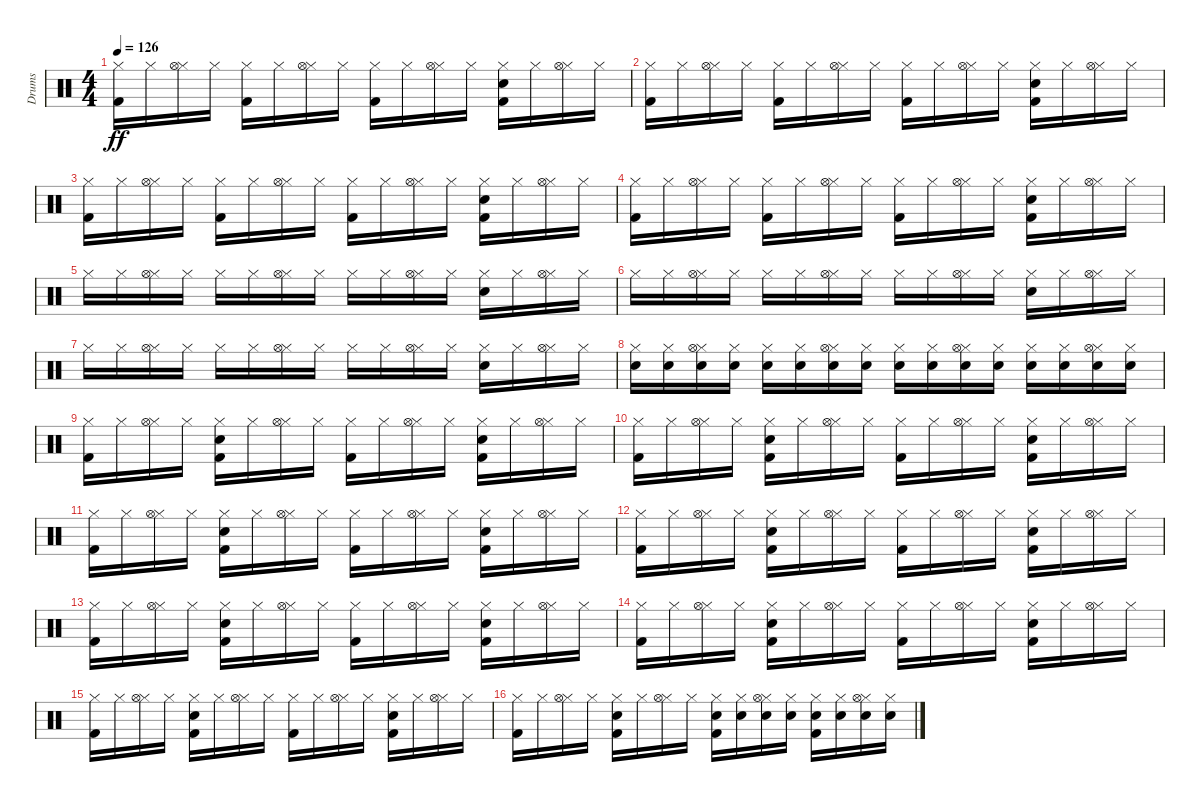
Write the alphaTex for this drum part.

\track ("Drums" "Drums") {instrument percussion}
\staff {score}
\articulation defaults
\ts (4 4)
\tempo 126
\clef neutral
\ks c
("Kick (hit) 2" "Hi-Hat (closed)").16{dy ff} "Hi-Hat (closed)".16 ("Hi-Hat (closed)" "Hi-Hat (open)").16 "Hi-Hat (closed)".16 ("Kick (hit) 2" "Hi-Hat (closed)").16 "Hi-Hat (closed)".16 ("Hi-Hat (closed)" "Hi-Hat (open)").16 "Hi-Hat (closed)".16 ("Kick (hit) 2" "Hi-Hat (closed)").16 "Hi-Hat (closed)".16 ("Hi-Hat (closed)" "Hi-Hat (open)").16 "Hi-Hat (closed)".16 ("Kick (hit) 2" "Electric Snare (hit)" "Hi-Hat (closed)").16 "Hi-Hat (closed)".16 ("Hi-Hat (closed)" "Hi-Hat (open)").16 "Hi-Hat (closed)".16 |
("Kick (hit) 2" "Hi-Hat (closed)").16 "Hi-Hat (closed)".16 ("Hi-Hat (closed)" "Hi-Hat (open)").16 "Hi-Hat (closed)".16 ("Kick (hit) 2" "Hi-Hat (closed)").16 "Hi-Hat (closed)".16 ("Hi-Hat (closed)" "Hi-Hat (open)").16 "Hi-Hat (closed)".16 ("Kick (hit) 2" "Hi-Hat (closed)").16 "Hi-Hat (closed)".16 ("Hi-Hat (closed)" "Hi-Hat (open)").16 "Hi-Hat (closed)".16 ("Kick (hit) 2" "Electric Snare (hit)" "Hi-Hat (closed)").16 "Hi-Hat (closed)".16 ("Hi-Hat (closed)" "Hi-Hat (open)").16 "Hi-Hat (closed)".16 |
("Kick (hit) 2" "Hi-Hat (closed)").16 "Hi-Hat (closed)".16 ("Hi-Hat (closed)" "Hi-Hat (open)").16 "Hi-Hat (closed)".16 ("Kick (hit) 2" "Hi-Hat (closed)").16 "Hi-Hat (closed)".16 ("Hi-Hat (closed)" "Hi-Hat (open)").16 "Hi-Hat (closed)".16 ("Kick (hit) 2" "Hi-Hat (closed)").16 "Hi-Hat (closed)".16 ("Hi-Hat (closed)" "Hi-Hat (open)").16 "Hi-Hat (closed)".16 ("Kick (hit) 2" "Electric Snare (hit)" "Hi-Hat (closed)").16 "Hi-Hat (closed)".16 ("Hi-Hat (closed)" "Hi-Hat (open)").16 "Hi-Hat (closed)".16 |
("Kick (hit) 2" "Hi-Hat (closed)").16 "Hi-Hat (closed)".16 ("Hi-Hat (closed)" "Hi-Hat (open)").16 "Hi-Hat (closed)".16 ("Kick (hit) 2" "Hi-Hat (closed)").16 "Hi-Hat (closed)".16 ("Hi-Hat (closed)" "Hi-Hat (open)").16 "Hi-Hat (closed)".16 ("Kick (hit) 2" "Hi-Hat (closed)").16 "Hi-Hat (closed)".16 ("Hi-Hat (closed)" "Hi-Hat (open)").16 "Hi-Hat (closed)".16 ("Kick (hit) 2" "Electric Snare (hit)" "Hi-Hat (closed)").16 "Hi-Hat (closed)".16 ("Hi-Hat (closed)" "Hi-Hat (open)").16 "Hi-Hat (closed)".16 |
"Hi-Hat (closed)".16 "Hi-Hat (closed)".16 ("Hi-Hat (closed)" "Hi-Hat (open)").16 "Hi-Hat (closed)".16 "Hi-Hat (closed)".16 "Hi-Hat (closed)".16 ("Hi-Hat (closed)" "Hi-Hat (open)").16 "Hi-Hat (closed)".16 "Hi-Hat (closed)".16 "Hi-Hat (closed)".16 ("Hi-Hat (closed)" "Hi-Hat (open)").16 "Hi-Hat (closed)".16 ("Electric Snare (hit)" "Hi-Hat (closed)").16 "Hi-Hat (closed)".16 ("Hi-Hat (closed)" "Hi-Hat (open)").16 "Hi-Hat (closed)".16 |
"Hi-Hat (closed)".16 "Hi-Hat (closed)".16 ("Hi-Hat (closed)" "Hi-Hat (open)").16 "Hi-Hat (closed)".16 "Hi-Hat (closed)".16 "Hi-Hat (closed)".16 ("Hi-Hat (closed)" "Hi-Hat (open)").16 "Hi-Hat (closed)".16 "Hi-Hat (closed)".16 "Hi-Hat (closed)".16 ("Hi-Hat (closed)" "Hi-Hat (open)").16 "Hi-Hat (closed)".16 ("Electric Snare (hit)" "Hi-Hat (closed)").16 "Hi-Hat (closed)".16 ("Hi-Hat (closed)" "Hi-Hat (open)").16 "Hi-Hat (closed)".16 |
"Hi-Hat (closed)".16 "Hi-Hat (closed)".16 ("Hi-Hat (closed)" "Hi-Hat (open)").16 "Hi-Hat (closed)".16 "Hi-Hat (closed)".16 "Hi-Hat (closed)".16 ("Hi-Hat (closed)" "Hi-Hat (open)").16 "Hi-Hat (closed)".16 "Hi-Hat (closed)".16 "Hi-Hat (closed)".16 ("Hi-Hat (closed)" "Hi-Hat (open)").16 "Hi-Hat (closed)".16 ("Electric Snare (hit)" "Hi-Hat (closed)").16 "Hi-Hat (closed)".16 ("Hi-Hat (closed)" "Hi-Hat (open)").16 "Hi-Hat (closed)".16 |
("Electric Snare (hit)" "Hi-Hat (closed)").16 ("Electric Snare (hit)" "Hi-Hat (closed)").16 ("Electric Snare (hit)" "Hi-Hat (closed)" "Hi-Hat (open)").16 ("Electric Snare (hit)" "Hi-Hat (closed)").16 ("Electric Snare (hit)" "Hi-Hat (closed)").16 ("Electric Snare (hit)" "Hi-Hat (closed)").16 ("Electric Snare (hit)" "Hi-Hat (closed)" "Hi-Hat (open)").16 ("Electric Snare (hit)" "Hi-Hat (closed)").16 ("Electric Snare (hit)" "Hi-Hat (closed)").16 ("Electric Snare (hit)" "Hi-Hat (closed)").16 ("Electric Snare (hit)" "Hi-Hat (closed)" "Hi-Hat (open)").16 ("Electric Snare (hit)" "Hi-Hat (closed)").16 ("Electric Snare (hit)" "Hi-Hat (closed)").16 ("Electric Snare (hit)" "Hi-Hat (closed)").16 ("Electric Snare (hit)" "Hi-Hat (closed)" "Hi-Hat (open)").16 ("Electric Snare (hit)" "Hi-Hat (closed)").16 |
("Kick (hit) 2" "Hi-Hat (closed)").16 "Hi-Hat (closed)".16 ("Hi-Hat (closed)" "Hi-Hat (open)").16 "Hi-Hat (closed)".16 ("Kick (hit) 2" "Electric Snare (hit)" "Hi-Hat (closed)").16 "Hi-Hat (closed)".16 ("Hi-Hat (closed)" "Hi-Hat (open)").16 "Hi-Hat (closed)".16 ("Kick (hit) 2" "Hi-Hat (closed)").16 "Hi-Hat (closed)".16 ("Hi-Hat (closed)" "Hi-Hat (open)").16 "Hi-Hat (closed)".16 ("Kick (hit) 2" "Electric Snare (hit)" "Hi-Hat (closed)").16 "Hi-Hat (closed)".16 ("Hi-Hat (closed)" "Hi-Hat (open)").16 "Hi-Hat (closed)".16 |
("Kick (hit) 2" "Hi-Hat (closed)").16 "Hi-Hat (closed)".16 ("Hi-Hat (closed)" "Hi-Hat (open)").16 "Hi-Hat (closed)".16 ("Kick (hit) 2" "Electric Snare (hit)" "Hi-Hat (closed)").16 "Hi-Hat (closed)".16 ("Hi-Hat (closed)" "Hi-Hat (open)").16 "Hi-Hat (closed)".16 ("Kick (hit) 2" "Hi-Hat (closed)").16 "Hi-Hat (closed)".16 ("Hi-Hat (closed)" "Hi-Hat (open)").16 "Hi-Hat (closed)".16 ("Kick (hit) 2" "Electric Snare (hit)" "Hi-Hat (closed)").16 "Hi-Hat (closed)".16 ("Hi-Hat (closed)" "Hi-Hat (open)").16 "Hi-Hat (closed)".16 |
("Kick (hit) 2" "Hi-Hat (closed)").16 "Hi-Hat (closed)".16 ("Hi-Hat (closed)" "Hi-Hat (open)").16 "Hi-Hat (closed)".16 ("Kick (hit) 2" "Electric Snare (hit)" "Hi-Hat (closed)").16 "Hi-Hat (closed)".16 ("Hi-Hat (closed)" "Hi-Hat (open)").16 "Hi-Hat (closed)".16 ("Kick (hit) 2" "Hi-Hat (closed)").16 "Hi-Hat (closed)".16 ("Hi-Hat (closed)" "Hi-Hat (open)").16 "Hi-Hat (closed)".16 ("Kick (hit) 2" "Electric Snare (hit)" "Hi-Hat (closed)").16 "Hi-Hat (closed)".16 ("Hi-Hat (closed)" "Hi-Hat (open)").16 "Hi-Hat (closed)".16 |
("Kick (hit) 2" "Hi-Hat (closed)").16 "Hi-Hat (closed)".16 ("Hi-Hat (closed)" "Hi-Hat (open)").16 "Hi-Hat (closed)".16 ("Kick (hit) 2" "Electric Snare (hit)" "Hi-Hat (closed)").16 "Hi-Hat (closed)".16 ("Hi-Hat (closed)" "Hi-Hat (open)").16 "Hi-Hat (closed)".16 ("Kick (hit) 2" "Hi-Hat (closed)").16 "Hi-Hat (closed)".16 ("Hi-Hat (closed)" "Hi-Hat (open)").16 "Hi-Hat (closed)".16 ("Kick (hit) 2" "Electric Snare (hit)" "Hi-Hat (closed)").16 "Hi-Hat (closed)".16 ("Hi-Hat (closed)" "Hi-Hat (open)").16 "Hi-Hat (closed)".16 |
("Kick (hit) 2" "Hi-Hat (closed)").16 "Hi-Hat (closed)".16 ("Hi-Hat (closed)" "Hi-Hat (open)").16 "Hi-Hat (closed)".16 ("Kick (hit) 2" "Electric Snare (hit)" "Hi-Hat (closed)").16 "Hi-Hat (closed)".16 ("Hi-Hat (closed)" "Hi-Hat (open)").16 "Hi-Hat (closed)".16 ("Kick (hit) 2" "Hi-Hat (closed)").16 "Hi-Hat (closed)".16 ("Hi-Hat (closed)" "Hi-Hat (open)").16 "Hi-Hat (closed)".16 ("Kick (hit) 2" "Electric Snare (hit)" "Hi-Hat (closed)").16 "Hi-Hat (closed)".16 ("Hi-Hat (closed)" "Hi-Hat (open)").16 "Hi-Hat (closed)".16 |
("Kick (hit) 2" "Hi-Hat (closed)").16 "Hi-Hat (closed)".16 ("Hi-Hat (closed)" "Hi-Hat (open)").16 "Hi-Hat (closed)".16 ("Kick (hit) 2" "Electric Snare (hit)" "Hi-Hat (closed)").16 "Hi-Hat (closed)".16 ("Hi-Hat (closed)" "Hi-Hat (open)").16 "Hi-Hat (closed)".16 ("Kick (hit) 2" "Hi-Hat (closed)").16 "Hi-Hat (closed)".16 ("Hi-Hat (closed)" "Hi-Hat (open)").16 "Hi-Hat (closed)".16 ("Kick (hit) 2" "Electric Snare (hit)" "Hi-Hat (closed)").16 "Hi-Hat (closed)".16 ("Hi-Hat (closed)" "Hi-Hat (open)").16 "Hi-Hat (closed)".16 |
("Kick (hit) 2" "Hi-Hat (closed)").16 "Hi-Hat (closed)".16 ("Hi-Hat (closed)" "Hi-Hat (open)").16 "Hi-Hat (closed)".16 ("Kick (hit) 2" "Electric Snare (hit)" "Hi-Hat (closed)").16 "Hi-Hat (closed)".16 ("Hi-Hat (closed)" "Hi-Hat (open)").16 "Hi-Hat (closed)".16 ("Kick (hit) 2" "Hi-Hat (closed)").16 "Hi-Hat (closed)".16 ("Hi-Hat (closed)" "Hi-Hat (open)").16 "Hi-Hat (closed)".16 ("Kick (hit) 2" "Electric Snare (hit)" "Hi-Hat (closed)").16 "Hi-Hat (closed)".16 ("Hi-Hat (closed)" "Hi-Hat (open)").16 "Hi-Hat (closed)".16 |
("Kick (hit) 2" "Hi-Hat (closed)").16 "Hi-Hat (closed)".16 ("Hi-Hat (closed)" "Hi-Hat (open)").16 "Hi-Hat (closed)".16 ("Kick (hit) 2" "Electric Snare (hit)" "Hi-Hat (closed)").16 "Hi-Hat (closed)".16 ("Hi-Hat (closed)" "Hi-Hat (open)").16 "Hi-Hat (closed)".16 ("Kick (hit) 2" "Electric Snare (hit)" "Hi-Hat (closed)").16 ("Electric Snare (hit)" "Hi-Hat (closed)").16 ("Electric Snare (hit)" "Hi-Hat (closed)" "Hi-Hat (open)").16 ("Electric Snare (hit)" "Hi-Hat (closed)").16 ("Kick (hit) 2" "Electric Snare (hit)" "Hi-Hat (closed)").16 ("Electric Snare (hit)" "Hi-Hat (closed)").16 ("Electric Snare (hit)" "Hi-Hat (closed)" "Hi-Hat (open)").16 ("Electric Snare (hit)" "Hi-Hat (closed)").16
